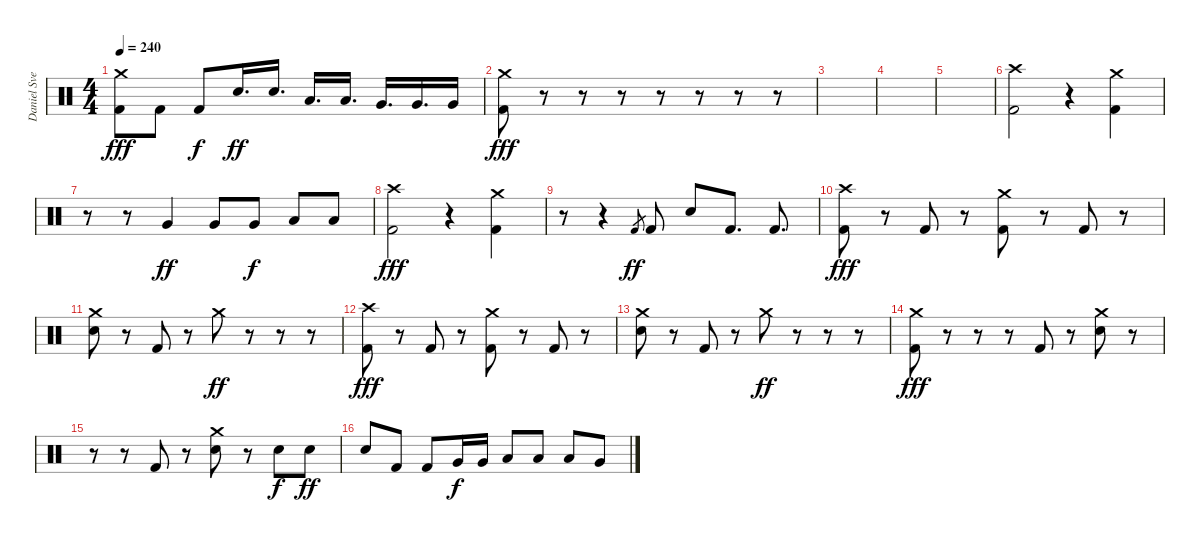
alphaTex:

\track ("Daniel Svensson" "Daniel Sve") {instrument percussion}
\staff {score}
\articulation defaults
\ts (4 4)
\tempo 240
\clef neutral
\ks c
("Crash medium (hit)" "Kick (hit) 2").8{dy fff} "Kick (hit) 2".8 "Kick (hit) 2".8{dy f} "Electric Snare (hit)".16{d dy ff} "Electric Snare (hit)".16{d} "Low Floor Tom (hit)".16{d} "Low Floor Tom (hit)".16{d} "Very Low Tom (hit)".16{d} "Very Low Tom (hit)".16{d} "Very Low Tom (hit)".16 |
("Crash medium (hit)" "Kick (hit) 2").8{dy fff} r.8 r.8 r.8 r.8 r.8 r.8 r.8 |
|
|
|
("Crash high (hit)" "Kick (hit) 2").2 r.4 ("Crash medium (hit)" "Kick (hit) 2").4 |
r.8 r.8 "Very Low Tom (hit)".4{dy ff} "Very Low Tom (hit)".8 "Very Low Tom (hit)".8{dy f} "Low Floor Tom (hit)".8 "Low Floor Tom (hit)".8 |
("Crash high (hit)" "Kick (hit) 2").2{dy fff} r.4 ("Crash medium (hit)" "Kick (hit) 2").4 |
r.8 r.4 "Kick (hit) 2".8{gr dy ff} "Kick (hit) 2".8 "Electric Snare (hit)".8 "Kick (hit) 2".8{d} "Kick (hit) 2".8{d} |
("Crash high (hit)" "Kick (hit) 2").8{dy fff} r.8 "Kick (hit) 2".8 r.8 ("Crash medium (hit)" "Kick (hit) 2").8 r.8 "Kick (hit) 2".8 r.8 |
("Crash medium (hit)" "Electric Snare (hit)").8 r.8 "Kick (hit) 2".8 r.8 "Crash medium (hit)".8{dy ff} r.8 r.8 r.8 |
("Crash high (hit)" "Kick (hit) 2").8{dy fff} r.8 "Kick (hit) 2".8 r.8 ("Crash medium (hit)" "Kick (hit) 2").8 r.8 "Kick (hit) 2".8 r.8 |
("Crash medium (hit)" "Electric Snare (hit)").8 r.8 "Kick (hit) 2".8 r.8 "Crash medium (hit)".8{dy ff} r.8 r.8 r.8 |
("Crash medium (hit)" "Kick (hit) 2").8{dy fff} r.8 r.8 r.8 "Kick (hit) 2".8 r.8 ("Crash medium (hit)" "Electric Snare (hit)").8 r.8 |
r.8 r.8 "Kick (hit) 2".8 r.8 ("Crash medium (hit)" "Electric Snare (hit)").8 r.8 "Electric Snare (hit)".8{dy f} "Electric Snare (hit)".8{dy ff} |
"Electric Snare (hit)".8 "Kick (hit) 2".8 "Kick (hit) 2".8 "Very Low Tom (hit)".16{dy f} "Very Low Tom (hit)".16 "Low Tom (hit)".8 "Low Tom (hit)".8 "Low Tom (hit)".8 "Very Low Tom (hit)".8
